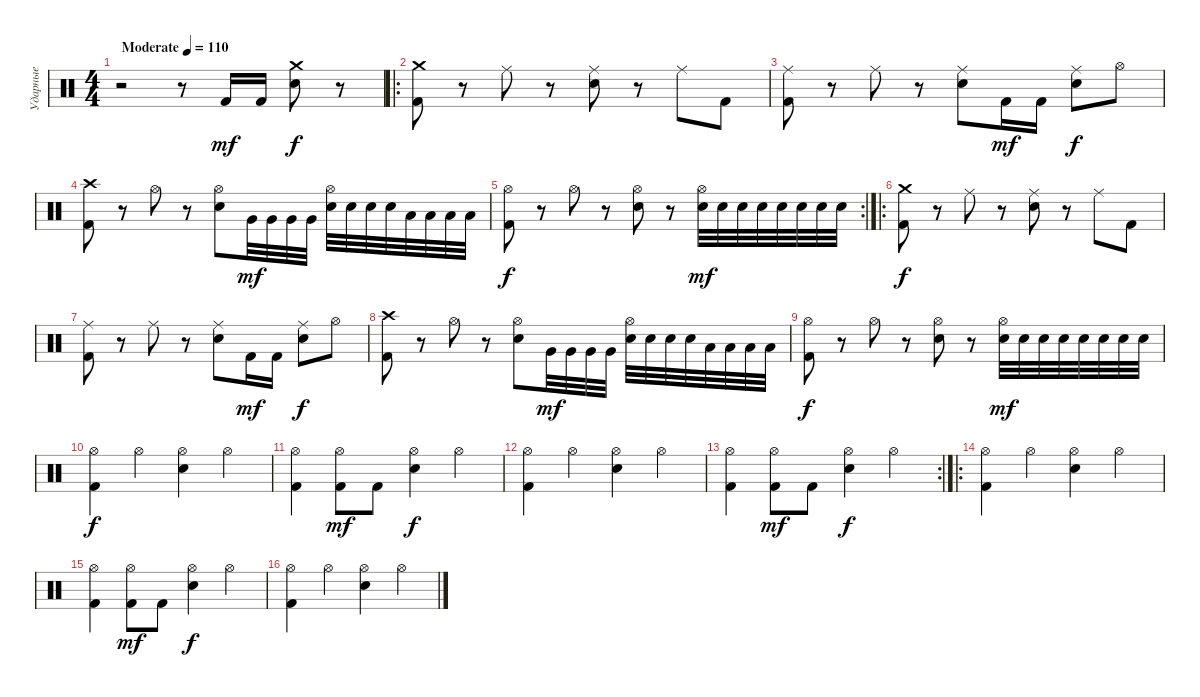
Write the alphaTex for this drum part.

\track ("Ударные" "Ударные") {instrument percussion}
\staff {score}
\articulation defaults
\ts (4 4)
\tempo (110 "Moderate")
\clef neutral
\ks c
r.2{dy mf} r.8 "Kick (hit) 2".16 "Kick (hit) 2".16 ("Crash medium (hit)" "Electric Snare (hit)").8{dy f} r.8 |
\ro
("Crash medium (hit)" "Kick (hit) 2").8 r.8 "Ride (middle)".8 r.8 ("Ride (middle)" "Electric Snare (hit)").8 r.8 "Ride (middle)".8 "Kick (hit) 2".8 |
("Ride (middle)" "Kick (hit) 2").8 r.8 "Ride (middle)".8 r.8 ("Ride (middle)" "Electric Snare (hit)").8 "Kick (hit) 2".16{dy mf} "Kick (hit) 2".16 ("Ride (middle)" "Electric Snare (hit)").8{dy f} "Hi-Hat (open)".8 |
("Crash high (hit)" "Kick (hit) 2").8 r.8 "Hi-Hat (open)".8 r.8 ("Hi-Hat (open)" "Electric Snare (hit)").8 "Very Low Tom (hit)".32{dy mf} "Very Low Tom (hit)".32 "Very Low Tom (hit)".32 "Very Low Tom (hit)".32 ("Hi-Hat (open)" "Electric Snare (hit)").32 "Electric Snare (hit)".32 "Electric Snare (hit)".32 "Electric Snare (hit)".32 "Low Tom (hit)".32 "Low Tom (hit)".32 "Low Tom (hit)".32 "Low Tom (hit)".32 |
\rc 2
("Hi-Hat (open)" "Kick (hit) 2").8{dy f} r.8 "Hi-Hat (open)".8 r.8 ("Hi-Hat (open)" "Electric Snare (hit)").8 r.8 ("Hi-Hat (open)" "Electric Snare (hit)").32{dy mf} "Electric Snare (hit)".32 "Electric Snare (hit)".32 "Electric Snare (hit)".32 "Electric Snare (hit)".32 "Electric Snare (hit)".32 "Electric Snare (hit)".32 "Electric Snare (hit)".32 |
\ro
("Crash medium (hit)" "Kick (hit) 2").8{dy f} r.8 "Ride (middle)".8 r.8 ("Ride (middle)" "Electric Snare (hit)").8 r.8 "Ride (middle)".8 "Kick (hit) 2".8 |
("Ride (middle)" "Kick (hit) 2").8 r.8 "Ride (middle)".8 r.8 ("Ride (middle)" "Electric Snare (hit)").8 "Kick (hit) 2".16{dy mf} "Kick (hit) 2".16 ("Ride (middle)" "Electric Snare (hit)").8{dy f} "Hi-Hat (open)".8 |
("Crash high (hit)" "Kick (hit) 2").8 r.8 "Hi-Hat (open)".8 r.8 ("Hi-Hat (open)" "Electric Snare (hit)").8 "Very Low Tom (hit)".32{dy mf} "Very Low Tom (hit)".32 "Very Low Tom (hit)".32 "Very Low Tom (hit)".32 ("Hi-Hat (open)" "Electric Snare (hit)").32 "Electric Snare (hit)".32 "Electric Snare (hit)".32 "Electric Snare (hit)".32 "Low Tom (hit)".32 "Low Tom (hit)".32 "Low Tom (hit)".32 "Low Tom (hit)".32 |
("Hi-Hat (open)" "Kick (hit) 2").8{dy f} r.8 "Hi-Hat (open)".8 r.8 ("Hi-Hat (open)" "Electric Snare (hit)").8 r.8 ("Hi-Hat (open)" "Electric Snare (hit)").32{dy mf} "Electric Snare (hit)".32 "Electric Snare (hit)".32 "Electric Snare (hit)".32 "Electric Snare (hit)".32 "Electric Snare (hit)".32 "Electric Snare (hit)".32 "Electric Snare (hit)".32 |
("Hi-Hat (open)" "Kick (hit) 2").4{dy f} "Hi-Hat (open)".4 ("Hi-Hat (open)" "Electric Snare (hit)").4 "Hi-Hat (open)".4 |
("Hi-Hat (open)" "Kick (hit) 2").4 ("Hi-Hat (open)" "Kick (hit) 2").8{dy mf} "Kick (hit) 2".8 ("Hi-Hat (open)" "Electric Snare (hit)").4{dy f} "Hi-Hat (open)".4 |
("Hi-Hat (open)" "Kick (hit) 2").4 "Hi-Hat (open)".4 ("Hi-Hat (open)" "Electric Snare (hit)").4 "Hi-Hat (open)".4 |
\rc 2
("Hi-Hat (open)" "Kick (hit) 2").4 ("Hi-Hat (open)" "Kick (hit) 2").8{dy mf} "Kick (hit) 2".8 ("Hi-Hat (open)" "Electric Snare (hit)").4{dy f} "Hi-Hat (open)".4 |
\ro
("Hi-Hat (open)" "Kick (hit) 2").4 "Hi-Hat (open)".4 ("Hi-Hat (open)" "Electric Snare (hit)").4 "Hi-Hat (open)".4 |
("Hi-Hat (open)" "Kick (hit) 2").4 ("Hi-Hat (open)" "Kick (hit) 2").8{dy mf} "Kick (hit) 2".8 ("Hi-Hat (open)" "Electric Snare (hit)").4{dy f} "Hi-Hat (open)".4 |
("Hi-Hat (open)" "Kick (hit) 2").4 "Hi-Hat (open)".4 ("Hi-Hat (open)" "Electric Snare (hit)").4 "Hi-Hat (open)".4
